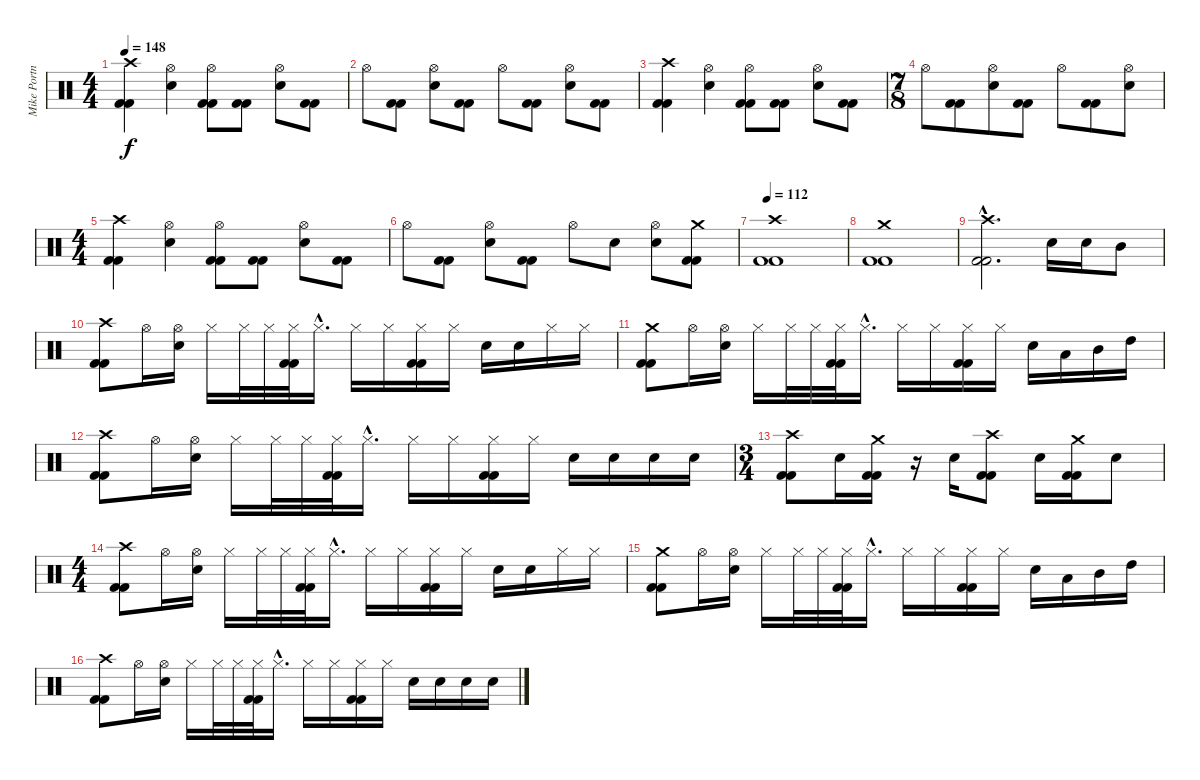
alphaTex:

\track ("Mike Portnoy - Drum" "Mike Portn") {instrument percussion}
\staff {score}
\articulation defaults
\ts (4 4)
\tempo 148
\clef neutral
\ks c
("Crash high (hit)" "Kick (hit) 2" "Kick (hit) 2").4{dy f} ("Hi-Hat (open)" "Snare (hit) 2").4 ("Hi-Hat (open)" "Kick (hit) 2" "Kick (hit) 2").8 ("Kick (hit) 2" "Kick (hit) 2").8 ("Hi-Hat (open)" "Snare (hit) 2").8 ("Kick (hit) 2" "Kick (hit) 2").8 |
"Hi-Hat (open)".8 ("Kick (hit) 2" "Kick (hit) 2").8 ("Hi-Hat (open)" "Snare (hit) 2").8 ("Kick (hit) 2" "Kick (hit) 2").8 "Hi-Hat (open)".8 ("Kick (hit) 2" "Kick (hit) 2").8 ("Hi-Hat (open)" "Snare (hit) 2").8 ("Kick (hit) 2" "Kick (hit) 2").8 |
("Crash high (hit)" "Kick (hit) 2" "Kick (hit) 2").4 ("Hi-Hat (open)" "Snare (hit) 2").4 ("Hi-Hat (open)" "Kick (hit) 2" "Kick (hit) 2").8 ("Kick (hit) 2" "Kick (hit) 2").8 ("Hi-Hat (open)" "Snare (hit) 2").8 ("Kick (hit) 2" "Kick (hit) 2").8 |
\ts (7 8)
"Hi-Hat (open)".8 ("Kick (hit) 2" "Kick (hit) 2").8 ("Hi-Hat (open)" "Snare (hit) 2").8 ("Kick (hit) 2" "Kick (hit) 2").8 "Hi-Hat (open)".8 ("Kick (hit) 2" "Kick (hit) 2").8 ("Hi-Hat (open)" "Snare (hit) 2").8 |
\ts (4 4)
("Crash high (hit)" "Kick (hit) 2" "Kick (hit) 2").4 ("Hi-Hat (open)" "Snare (hit) 2").4 ("Hi-Hat (open)" "Kick (hit) 2" "Kick (hit) 2").8 ("Kick (hit) 2" "Kick (hit) 2").8 ("Hi-Hat (open)" "Snare (hit) 2").8 ("Kick (hit) 2" "Kick (hit) 2").8 |
"Hi-Hat (open)".8 ("Kick (hit) 2" "Kick (hit) 2").8 ("Hi-Hat (open)" "Snare (hit) 2").8 ("Kick (hit) 2" "Kick (hit) 2").8 "Hi-Hat (open)".8 "Snare (hit) 2".8 ("Hi-Hat (open)" "Snare (hit) 2").8 ("Crash medium (hit)" "Kick (hit) 2" "Kick (hit) 2").8 |
\tempo 112
("Crash high (hit)" "Kick (hit) 2" "Kick (hit) 2").1 |
("Crash medium (hit)" "Kick (hit) 2" "Kick (hit) 2").1 |
("Crash high (hit)"{hac} "Kick (hit) 2"{hac} "Kick (hit) 2"{hac}).2{d} "Snare (hit) 2".16 "Snare (hit) 2".16 "Mid Tom (hit)".8 |
("Crash high (hit)" "Kick (hit) 2" "Kick (hit) 2").8 "Hi-Hat (open)".16 ("Hi-Hat (open)" "Snare (hit) 2").16 "Hi-Hat (closed)".16 "Hi-Hat (closed)".32 "Hi-Hat (closed)".32 ("Hi-Hat (closed)" "Kick (hit) 2" "Kick (hit) 2").32 "Hi-Hat (closed)"{hac}.16{d} "Hi-Hat (closed)".16 "Hi-Hat (closed)".16 ("Hi-Hat (closed)" "Kick (hit) 2" "Kick (hit) 2").16 "Hi-Hat (closed)".16 "Snare (hit) 2".16 "Snare (hit) 2".16 "Hi-Hat (closed)".16 "Hi-Hat (closed)".16 |
("Crash medium (hit)" "Kick (hit) 2" "Kick (hit) 2").8 "Hi-Hat (open)".16 ("Hi-Hat (open)" "Snare (hit) 2").16 "Hi-Hat (closed)".16 "Hi-Hat (closed)".32 "Hi-Hat (closed)".32 ("Hi-Hat (closed)" "Kick (hit) 2" "Kick (hit) 2").32 "Hi-Hat (closed)"{hac}.16{d} "Hi-Hat (closed)".16 "Hi-Hat (closed)".16 ("Hi-Hat (closed)" "Kick (hit) 2" "Kick (hit) 2").16 "Hi-Hat (closed)".16 "Snare (hit) 2".16 "Low Tom (hit)".16 "Mid Tom (hit)".16 "High Tom (hit)".16 |
("Crash high (hit)" "Kick (hit) 2" "Kick (hit) 2").8 "Hi-Hat (open)".16 ("Hi-Hat (open)" "Snare (hit) 2").16 "Hi-Hat (closed)".16 "Hi-Hat (closed)".32 "Hi-Hat (closed)".32 ("Hi-Hat (closed)" "Kick (hit) 2" "Kick (hit) 2").32 "Hi-Hat (closed)"{hac}.16{d} "Hi-Hat (closed)".16 "Hi-Hat (closed)".16 ("Hi-Hat (closed)" "Kick (hit) 2" "Kick (hit) 2").16 "Hi-Hat (closed)".16 "Snare (hit) 2".16 "Snare (hit) 2".16 "Snare (hit) 2".16 "Snare (hit) 2".16 |
\ts (3 4)
("Crash high (hit)" "Kick (hit) 2" "Kick (hit) 2").8 "Snare (hit) 2".16 ("Crash medium (hit)" "Kick (hit) 2" "Kick (hit) 2").16 r.16 "Snare (hit) 2".16 ("Crash high (hit)" "Kick (hit) 2" "Kick (hit) 2").8 "Snare (hit) 2".16 ("Crash medium (hit)" "Kick (hit) 2" "Kick (hit) 2").16 "Snare (hit) 2".8 |
\ts (4 4)
("Crash high (hit)" "Kick (hit) 2" "Kick (hit) 2").8 "Hi-Hat (open)".16 ("Hi-Hat (open)" "Snare (hit) 2").16 "Hi-Hat (closed)".16 "Hi-Hat (closed)".32 "Hi-Hat (closed)".32 ("Hi-Hat (closed)" "Kick (hit) 2" "Kick (hit) 2").32 "Hi-Hat (closed)"{hac}.16{d} "Hi-Hat (closed)".16 "Hi-Hat (closed)".16 ("Hi-Hat (closed)" "Kick (hit) 2" "Kick (hit) 2").16 "Hi-Hat (closed)".16 "Snare (hit) 2".16 "Snare (hit) 2".16 "Hi-Hat (closed)".16 "Hi-Hat (closed)".16 |
("Crash medium (hit)" "Kick (hit) 2" "Kick (hit) 2").8 "Hi-Hat (open)".16 ("Hi-Hat (open)" "Snare (hit) 2").16 "Hi-Hat (closed)".16 "Hi-Hat (closed)".32 "Hi-Hat (closed)".32 ("Hi-Hat (closed)" "Kick (hit) 2" "Kick (hit) 2").32 "Hi-Hat (closed)"{hac}.16{d} "Hi-Hat (closed)".16 "Hi-Hat (closed)".16 ("Hi-Hat (closed)" "Kick (hit) 2" "Kick (hit) 2").16 "Hi-Hat (closed)".16 "Snare (hit) 2".16 "Low Tom (hit)".16 "Mid Tom (hit)".16 "High Tom (hit)".16 |
("Crash high (hit)" "Kick (hit) 2" "Kick (hit) 2").8 "Hi-Hat (open)".16 ("Hi-Hat (open)" "Snare (hit) 2").16 "Hi-Hat (closed)".16 "Hi-Hat (closed)".32 "Hi-Hat (closed)".32 ("Hi-Hat (closed)" "Kick (hit) 2" "Kick (hit) 2").32 "Hi-Hat (closed)"{hac}.16{d} "Hi-Hat (closed)".16 "Hi-Hat (closed)".16 ("Hi-Hat (closed)" "Kick (hit) 2" "Kick (hit) 2").16 "Hi-Hat (closed)".16 "Snare (hit) 2".16 "Snare (hit) 2".16 "Snare (hit) 2".16 "Snare (hit) 2".16
